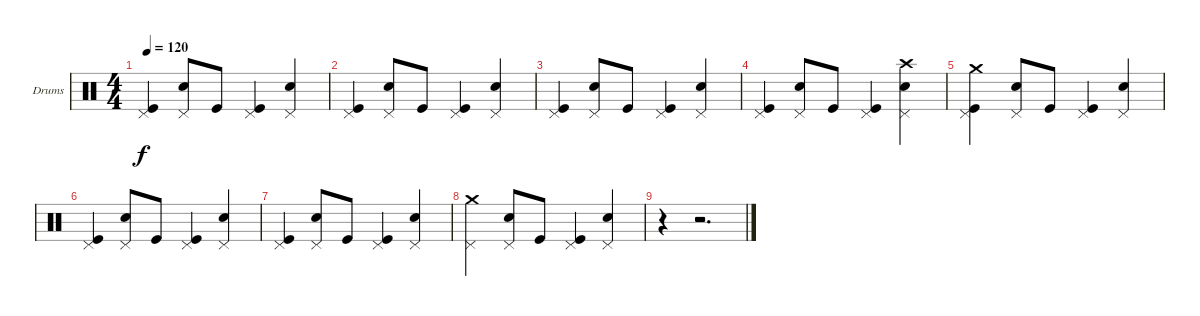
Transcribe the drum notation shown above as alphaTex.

\bracketExtendMode groupsimilarinstruments
\firstSystemTrackNameOrientation horizontal
\otherSystemsTrackNameOrientation horizontal
\track ("Drumkit" "Drums") {instrument percussion}
\staff {score}
\articulation defaults
\ts (4 4)
\tempo 120
\clef neutral
\ks c
("Kick (hit)" "Pedal Hi-Hat (hit)").4{dy f} ("Snare (hit) 2" "Pedal Hi-Hat (hit)").8 "Kick (hit)".8 ("Kick (hit)" "Pedal Hi-Hat (hit)").4 ("Snare (hit) 2" "Pedal Hi-Hat (hit)").4 |
("Kick (hit)" "Pedal Hi-Hat (hit)").4 ("Snare (hit) 2" "Pedal Hi-Hat (hit)").8 "Kick (hit)".8 ("Kick (hit)" "Pedal Hi-Hat (hit)").4 ("Snare (hit) 2" "Pedal Hi-Hat (hit)").4 |
("Kick (hit)" "Pedal Hi-Hat (hit)").4 ("Snare (hit) 2" "Pedal Hi-Hat (hit)").8 "Kick (hit)".8 ("Kick (hit)" "Pedal Hi-Hat (hit)").4 ("Snare (hit) 2" "Pedal Hi-Hat (hit)").4 |
("Kick (hit)" "Pedal Hi-Hat (hit)").4 ("Snare (hit) 2" "Pedal Hi-Hat (hit)").8 "Kick (hit)".8 ("Kick (hit)" "Pedal Hi-Hat (hit)").4 ("Snare (hit) 2" "Crash high (hit)" "Pedal Hi-Hat (hit)").4 |
("Kick (hit)" "Crash medium (hit)" "Pedal Hi-Hat (hit)").4 ("Snare (hit) 2" "Pedal Hi-Hat (hit)").8 "Kick (hit)".8 ("Kick (hit)" "Pedal Hi-Hat (hit)").4 ("Snare (hit) 2" "Pedal Hi-Hat (hit)").4 |
("Kick (hit)" "Pedal Hi-Hat (hit)").4 ("Snare (hit) 2" "Pedal Hi-Hat (hit)").8 "Kick (hit)".8 ("Kick (hit)" "Pedal Hi-Hat (hit)").4 ("Snare (hit) 2" "Pedal Hi-Hat (hit)").4 |
("Kick (hit)" "Pedal Hi-Hat (hit)").4 ("Snare (hit) 2" "Pedal Hi-Hat (hit)").8 "Kick (hit)".8 ("Kick (hit)" "Pedal Hi-Hat (hit)").4 ("Snare (hit) 2" "Pedal Hi-Hat (hit)").4 |
("Crash medium (hit)" "Pedal Hi-Hat (hit)").4 ("Snare (hit) 2" "Pedal Hi-Hat (hit)").8 "Kick (hit)".8 ("Kick (hit)" "Pedal Hi-Hat (hit)").4 ("Snare (hit) 2" "Pedal Hi-Hat (hit)").4 |
r.4 r.2{d}
